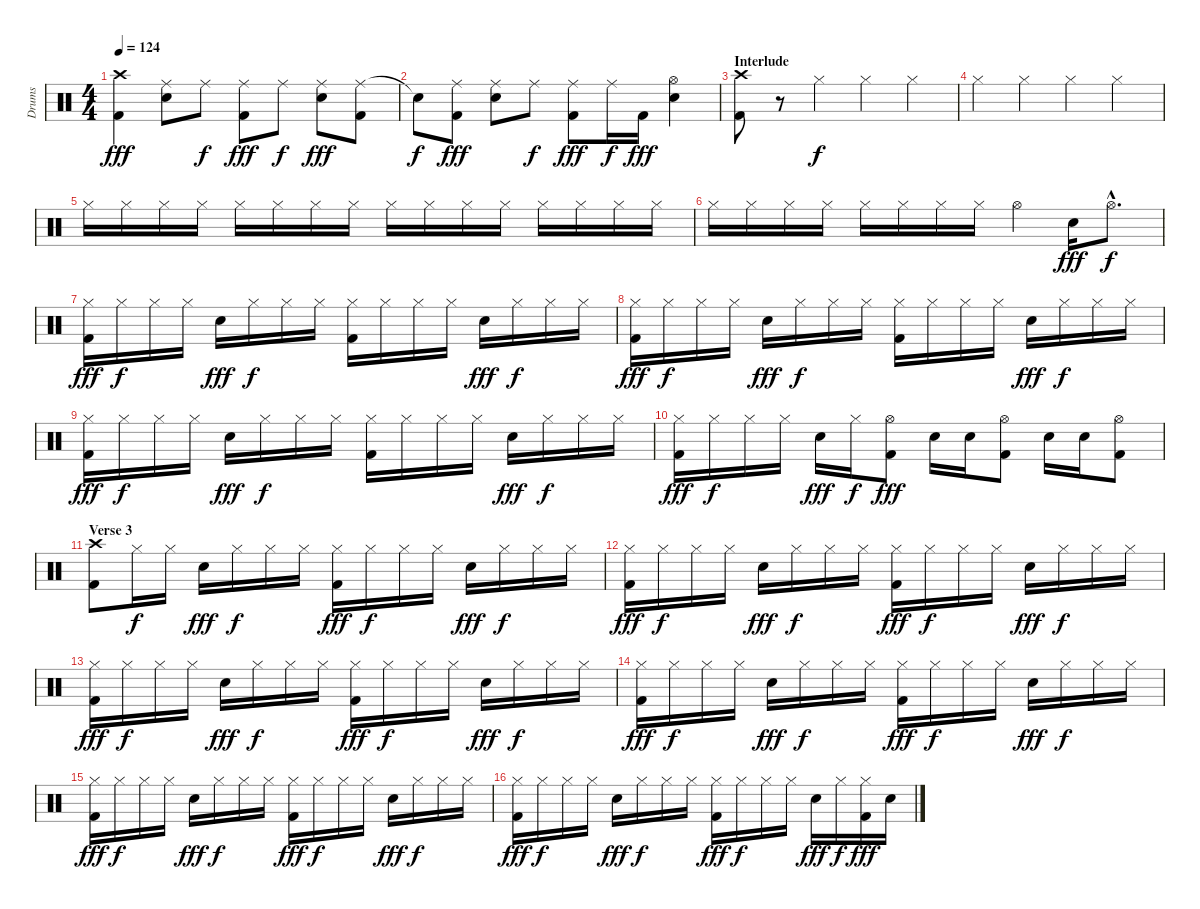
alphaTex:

\track ("Drums" "Drums") {instrument percussion}
\staff {score}
\articulation defaults
\ts (4 4)
\tempo 124
\clef neutral
\ks c
("Crash high (hit)" "Kick (hit) 2").4{dy fff} ("Ride (middle)" "Electric Snare (hit)").8 "Ride (middle)".8{dy f} ("Ride (middle)" "Kick (hit) 2").8{dy fff} "Ride (middle)".8{dy f} ("Ride (middle)" "Electric Snare (hit)").8{dy fff} ("Ride (middle)" "Kick (hit) 2").8 |
"Snare (hit)"{t}.8{dy f} ("Ride (middle)" "Kick (hit) 2").8{dy fff} ("Ride (middle)" "Electric Snare (hit)").8 "Ride (middle)".8{dy f} ("Ride (middle)" "Kick (hit) 2").8{dy fff} "Ride (middle)".16{dy f} "Kick (hit) 2".16{dy fff} ("Hi-Hat (open)" "Electric Snare (hit)").4 |
\section ("" "Interlude")
("Crash high (hit)" "Kick (hit) 2").8 r.8 "Hi-Hat (closed)".4{dy f} "Hi-Hat (closed)".4 "Hi-Hat (closed)".4 |
"Hi-Hat (closed)".4 "Hi-Hat (closed)".4 "Hi-Hat (closed)".4 "Hi-Hat (closed)".4 |
"Hi-Hat (closed)".16 "Hi-Hat (closed)".16 "Hi-Hat (closed)".16 "Hi-Hat (closed)".16 "Hi-Hat (closed)".16 "Hi-Hat (closed)".16 "Hi-Hat (closed)".16 "Hi-Hat (closed)".16 "Hi-Hat (closed)".16 "Hi-Hat (closed)".16 "Hi-Hat (closed)".16 "Hi-Hat (closed)".16 "Hi-Hat (closed)".16 "Hi-Hat (closed)".16 "Hi-Hat (closed)".16 "Hi-Hat (closed)".16 |
"Hi-Hat (closed)".16 "Hi-Hat (closed)".16 "Hi-Hat (closed)".16 "Hi-Hat (closed)".16 "Hi-Hat (closed)".16 "Hi-Hat (closed)".16 "Hi-Hat (closed)".16 "Hi-Hat (closed)".16 "Hi-Hat (open)".4 "Electric Snare (hit)".16{dy fff} "Hi-Hat (open)"{hac}.8{d dy f} |
("Hi-Hat (closed)" "Kick (hit) 2").16{dy fff} "Hi-Hat (closed)".16{dy f} "Hi-Hat (closed)".16 "Hi-Hat (closed)".16 "Electric Snare (hit)".16{dy fff} "Hi-Hat (closed)".16{dy f} "Hi-Hat (closed)".16 "Hi-Hat (closed)".16 ("Hi-Hat (closed)" "Kick (hit) 2").16 "Hi-Hat (closed)".16 "Hi-Hat (closed)".16 "Hi-Hat (closed)".16 "Electric Snare (hit)".16{dy fff} "Hi-Hat (closed)".16{dy f} "Hi-Hat (closed)".16 "Hi-Hat (closed)".16 |
("Hi-Hat (closed)" "Kick (hit) 2").16{dy fff} "Hi-Hat (closed)".16{dy f} "Hi-Hat (closed)".16 "Hi-Hat (closed)".16 "Electric Snare (hit)".16{dy fff} "Hi-Hat (closed)".16{dy f} "Hi-Hat (closed)".16 "Hi-Hat (closed)".16 ("Hi-Hat (closed)" "Kick (hit) 2").16 "Hi-Hat (closed)".16 "Hi-Hat (closed)".16 "Hi-Hat (closed)".16 "Electric Snare (hit)".16{dy fff} "Hi-Hat (closed)".16{dy f} "Hi-Hat (closed)".16 "Hi-Hat (closed)".16 |
("Hi-Hat (closed)" "Kick (hit) 2").16{dy fff} "Hi-Hat (closed)".16{dy f} "Hi-Hat (closed)".16 "Hi-Hat (closed)".16 "Electric Snare (hit)".16{dy fff} "Hi-Hat (closed)".16{dy f} "Hi-Hat (closed)".16 "Hi-Hat (closed)".16 ("Hi-Hat (closed)" "Kick (hit) 2").16 "Hi-Hat (closed)".16 "Hi-Hat (closed)".16 "Hi-Hat (closed)".16 "Electric Snare (hit)".16{dy fff} "Hi-Hat (closed)".16{dy f} "Hi-Hat (closed)".16 "Hi-Hat (closed)".16 |
("Hi-Hat (closed)" "Kick (hit) 2").16{dy fff} "Hi-Hat (closed)".16{dy f} "Hi-Hat (closed)".16 "Hi-Hat (closed)".16 "Electric Snare (hit)".16{dy fff} "Hi-Hat (closed)".16{dy f} ("Hi-Hat (open)" "Kick (hit) 2").8{dy fff} "Electric Snare (hit)".16 "Electric Snare (hit)".16 ("Hi-Hat (open)" "Kick (hit) 2").8 "Electric Snare (hit)".16 "Electric Snare (hit)".16 ("Hi-Hat (open)" "Kick (hit) 2").8 |
\section ("" "Verse 3")
("Crash high (hit)" "Kick (hit) 2").8 "Hi-Hat (closed)".16{dy f} "Hi-Hat (closed)".16 "Electric Snare (hit)".16{dy fff} "Hi-Hat (closed)".16{dy f} "Hi-Hat (closed)".16 "Hi-Hat (closed)".16 ("Hi-Hat (closed)" "Kick (hit) 2").16{dy fff} "Hi-Hat (closed)".16{dy f} "Hi-Hat (closed)".16 "Hi-Hat (closed)".16 "Electric Snare (hit)".16{dy fff} "Hi-Hat (closed)".16{dy f} "Hi-Hat (closed)".16 "Hi-Hat (closed)".16 |
("Hi-Hat (closed)" "Kick (hit) 2").16{dy fff} "Hi-Hat (closed)".16{dy f} "Hi-Hat (closed)".16 "Hi-Hat (closed)".16 "Electric Snare (hit)".16{dy fff} "Hi-Hat (closed)".16{dy f} "Hi-Hat (closed)".16 "Hi-Hat (closed)".16 ("Hi-Hat (closed)" "Kick (hit) 2").16{dy fff} "Hi-Hat (closed)".16{dy f} "Hi-Hat (closed)".16 "Hi-Hat (closed)".16 "Electric Snare (hit)".16{dy fff} "Hi-Hat (closed)".16{dy f} "Hi-Hat (closed)".16 "Hi-Hat (closed)".16 |
("Hi-Hat (closed)" "Kick (hit) 2").16{dy fff} "Hi-Hat (closed)".16{dy f} "Hi-Hat (closed)".16 "Hi-Hat (closed)".16 "Electric Snare (hit)".16{dy fff} "Hi-Hat (closed)".16{dy f} "Hi-Hat (closed)".16 "Hi-Hat (closed)".16 ("Hi-Hat (closed)" "Kick (hit) 2").16{dy fff} "Hi-Hat (closed)".16{dy f} "Hi-Hat (closed)".16 "Hi-Hat (closed)".16 "Electric Snare (hit)".16{dy fff} "Hi-Hat (closed)".16{dy f} "Hi-Hat (closed)".16 "Hi-Hat (closed)".16 |
("Hi-Hat (closed)" "Kick (hit) 2").16{dy fff} "Hi-Hat (closed)".16{dy f} "Hi-Hat (closed)".16 "Hi-Hat (closed)".16 "Electric Snare (hit)".16{dy fff} "Hi-Hat (closed)".16{dy f} "Hi-Hat (closed)".16 "Hi-Hat (closed)".16 ("Hi-Hat (closed)" "Kick (hit) 2").16{dy fff} "Hi-Hat (closed)".16{dy f} "Hi-Hat (closed)".16 "Hi-Hat (closed)".16 "Electric Snare (hit)".16{dy fff} "Hi-Hat (closed)".16{dy f} "Hi-Hat (closed)".16 "Hi-Hat (closed)".16 |
("Hi-Hat (closed)" "Kick (hit) 2").16{dy fff} "Hi-Hat (closed)".16{dy f} "Hi-Hat (closed)".16 "Hi-Hat (closed)".16 "Electric Snare (hit)".16{dy fff} "Hi-Hat (closed)".16{dy f} "Hi-Hat (closed)".16 "Hi-Hat (closed)".16 ("Hi-Hat (closed)" "Kick (hit) 2").16{dy fff} "Hi-Hat (closed)".16{dy f} "Hi-Hat (closed)".16 "Hi-Hat (closed)".16 "Electric Snare (hit)".16{dy fff} "Hi-Hat (closed)".16{dy f} "Hi-Hat (closed)".16 "Hi-Hat (closed)".16 |
("Hi-Hat (closed)" "Kick (hit) 2").16{dy fff} "Hi-Hat (closed)".16{dy f} "Hi-Hat (closed)".16 "Hi-Hat (closed)".16 "Electric Snare (hit)".16{dy fff} "Hi-Hat (closed)".16{dy f} "Hi-Hat (closed)".16 "Hi-Hat (closed)".16 ("Hi-Hat (closed)" "Kick (hit) 2").16{dy fff} "Hi-Hat (closed)".16{dy f} "Hi-Hat (closed)".16 "Hi-Hat (closed)".16 "Electric Snare (hit)".16{dy fff} "Hi-Hat (closed)".16{dy f} ("Hi-Hat (closed)" "Kick (hit) 2").16{dy fff} "Electric Snare (hit)".16
